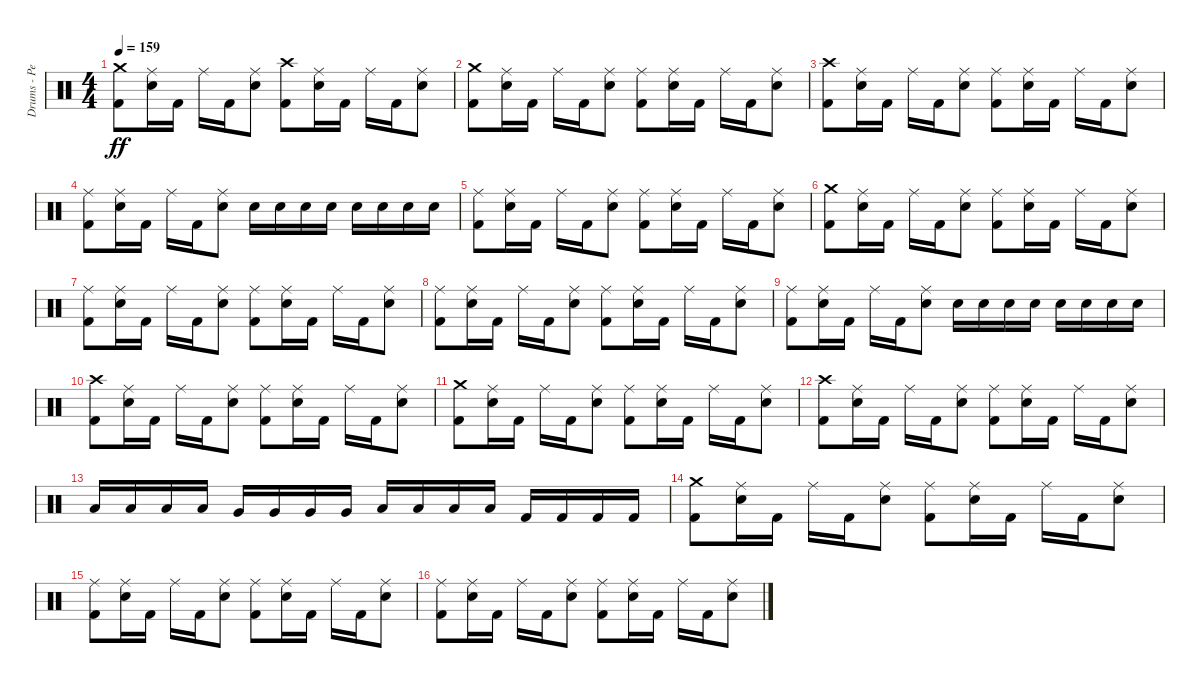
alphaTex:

\track ("Drums - Pete Finestone" "Drums - Pe") {instrument percussion}
\staff {score}
\articulation defaults
\ts (4 4)
\tempo 159
\clef neutral
\ks c
("Crash medium (hit)" "Kick (hit) 2").8{dy ff} ("Electric Snare (hit)" "Ride (middle)").16 "Kick (hit) 2".16 "Ride (middle)".16 "Kick (hit) 2".16 ("Electric Snare (hit)" "Ride (middle)").8 ("Kick (hit) 2" "Crash high (hit)").8 ("Electric Snare (hit)" "Ride (middle)").16 "Kick (hit) 2".16 "Ride (middle)".16 "Kick (hit) 2".16 ("Electric Snare (hit)" "Ride (middle)").8 |
("Kick (hit) 2" "Crash medium (hit)").8 ("Electric Snare (hit)" "Ride (middle)").16 "Kick (hit) 2".16 "Ride (middle)".16 "Kick (hit) 2".16 ("Electric Snare (hit)" "Ride (middle)").8 ("Kick (hit) 2" "Ride (middle)").8 ("Electric Snare (hit)" "Ride (middle)").16 "Kick (hit) 2".16 "Ride (middle)".16 "Kick (hit) 2".16 ("Electric Snare (hit)" "Ride (middle)").8 |
("Kick (hit) 2" "Crash high (hit)").8 ("Electric Snare (hit)" "Ride (middle)").16 "Kick (hit) 2".16 "Ride (middle)".16 "Kick (hit) 2".16 ("Electric Snare (hit)" "Ride (middle)").8 ("Kick (hit) 2" "Ride (middle)").8 ("Electric Snare (hit)" "Ride (middle)").16 "Kick (hit) 2".16 "Ride (middle)".16 "Kick (hit) 2".16 ("Electric Snare (hit)" "Ride (middle)").8 |
("Kick (hit) 2" "Ride (middle)").8 ("Electric Snare (hit)" "Ride (middle)").16 "Kick (hit) 2".16 "Ride (middle)".16 "Kick (hit) 2".16 ("Electric Snare (hit)" "Ride (middle)").8 "Electric Snare (hit)".16 "Electric Snare (hit)".16 "Electric Snare (hit)".16 "Electric Snare (hit)".16 "Electric Snare (hit)".16 "Electric Snare (hit)".16 "Electric Snare (hit)".16 "Electric Snare (hit)".16 |
("Kick (hit) 2" "Ride (middle)").8 ("Electric Snare (hit)" "Ride (middle)").16 "Kick (hit) 2".16 "Ride (middle)".16 "Kick (hit) 2".16 ("Electric Snare (hit)" "Ride (middle)").8 ("Kick (hit) 2" "Ride (middle)").8 ("Electric Snare (hit)" "Ride (middle)").16 "Kick (hit) 2".16 "Ride (middle)".16 "Kick (hit) 2".16 ("Electric Snare (hit)" "Ride (middle)").8 |
("Kick (hit) 2" "Crash medium (hit)").8 ("Electric Snare (hit)" "Ride (middle)").16 "Kick (hit) 2".16 "Ride (middle)".16 "Kick (hit) 2".16 ("Electric Snare (hit)" "Ride (middle)").8 ("Kick (hit) 2" "Ride (middle)").8 ("Electric Snare (hit)" "Ride (middle)").16 "Kick (hit) 2".16 "Ride (middle)".16 "Kick (hit) 2".16 ("Electric Snare (hit)" "Ride (middle)").8 |
("Kick (hit) 2" "Ride (middle)").8 ("Electric Snare (hit)" "Ride (middle)").16 "Kick (hit) 2".16 "Ride (middle)".16 "Kick (hit) 2".16 ("Electric Snare (hit)" "Ride (middle)").8 ("Kick (hit) 2" "Ride (middle)").8 ("Electric Snare (hit)" "Ride (middle)").16 "Kick (hit) 2".16 "Ride (middle)".16 "Kick (hit) 2".16 ("Electric Snare (hit)" "Ride (middle)").8 |
("Kick (hit) 2" "Ride (middle)").8 ("Electric Snare (hit)" "Ride (middle)").16 "Kick (hit) 2".16 "Ride (middle)".16 "Kick (hit) 2".16 ("Electric Snare (hit)" "Ride (middle)").8 ("Kick (hit) 2" "Ride (middle)").8 ("Electric Snare (hit)" "Ride (middle)").16 "Kick (hit) 2".16 "Ride (middle)".16 "Kick (hit) 2".16 ("Electric Snare (hit)" "Ride (middle)").8 |
("Kick (hit) 2" "Ride (middle)").8 ("Electric Snare (hit)" "Ride (middle)").16 "Kick (hit) 2".16 "Ride (middle)".16 "Kick (hit) 2".16 ("Electric Snare (hit)" "Ride (middle)").8 "Electric Snare (hit)".16 "Electric Snare (hit)".16 "Electric Snare (hit)".16 "Electric Snare (hit)".16 "Electric Snare (hit)".16 "Electric Snare (hit)".16 "Electric Snare (hit)".16 "Electric Snare (hit)".16 |
("Kick (hit) 2" "Crash high (hit)").8 ("Electric Snare (hit)" "Ride (middle)").16 "Kick (hit) 2".16 "Ride (middle)".16 "Kick (hit) 2".16 ("Electric Snare (hit)" "Ride (middle)").8 ("Kick (hit) 2" "Ride (middle)").8 ("Electric Snare (hit)" "Ride (middle)").16 "Kick (hit) 2".16 "Ride (middle)".16 "Kick (hit) 2".16 ("Electric Snare (hit)" "Ride (middle)").8 |
("Kick (hit) 2" "Crash medium (hit)").8 ("Electric Snare (hit)" "Ride (middle)").16 "Kick (hit) 2".16 "Ride (middle)".16 "Kick (hit) 2".16 ("Electric Snare (hit)" "Ride (middle)").8 ("Kick (hit) 2" "Ride (middle)").8 ("Electric Snare (hit)" "Ride (middle)").16 "Kick (hit) 2".16 "Ride (middle)".16 "Kick (hit) 2".16 ("Electric Snare (hit)" "Ride (middle)").8 |
("Kick (hit) 2" "Crash high (hit)").8 ("Electric Snare (hit)" "Ride (middle)").16 "Kick (hit) 2".16 "Ride (middle)".16 "Kick (hit) 2".16 ("Electric Snare (hit)" "Ride (middle)").8 ("Kick (hit) 2" "Ride (middle)").8 ("Electric Snare (hit)" "Ride (middle)").16 "Kick (hit) 2".16 "Ride (middle)".16 "Kick (hit) 2".16 ("Electric Snare (hit)" "Ride (middle)").8 |
"Low Tom (hit)".16 "Low Tom (hit)".16 "Low Tom (hit)".16 "Low Tom (hit)".16 "Very Low Tom (hit)".16 "Very Low Tom (hit)".16 "Very Low Tom (hit)".16 "Very Low Tom (hit)".16 "Low Floor Tom (hit)".16 "Low Floor Tom (hit)".16 "Low Floor Tom (hit)".16 "Low Floor Tom (hit)".16 "Kick (hit) 2".16 "Kick (hit) 2".16 "Kick (hit) 2".16 "Kick (hit) 2".16 |
("Kick (hit) 2" "Crash medium (hit)").8 ("Electric Snare (hit)" "Ride (middle)").16 "Kick (hit) 2".16 "Ride (middle)".16 "Kick (hit) 2".16 ("Electric Snare (hit)" "Ride (middle)").8 ("Kick (hit) 2" "Ride (middle)").8 ("Electric Snare (hit)" "Ride (middle)").16 "Kick (hit) 2".16 "Ride (middle)".16 "Kick (hit) 2".16 ("Electric Snare (hit)" "Ride (middle)").8 |
("Kick (hit) 2" "Ride (middle)").8 ("Electric Snare (hit)" "Ride (middle)").16 "Kick (hit) 2".16 "Ride (middle)".16 "Kick (hit) 2".16 ("Electric Snare (hit)" "Ride (middle)").8 ("Kick (hit) 2" "Ride (middle)").8 ("Electric Snare (hit)" "Ride (middle)").16 "Kick (hit) 2".16 "Ride (middle)".16 "Kick (hit) 2".16 ("Electric Snare (hit)" "Ride (middle)").8 |
("Kick (hit) 2" "Ride (middle)").8 ("Electric Snare (hit)" "Ride (middle)").16 "Kick (hit) 2".16 "Ride (middle)".16 "Kick (hit) 2".16 ("Electric Snare (hit)" "Ride (middle)").8 ("Kick (hit) 2" "Ride (middle)").8 ("Electric Snare (hit)" "Ride (middle)").16 "Kick (hit) 2".16 "Ride (middle)".16 "Kick (hit) 2".16 ("Electric Snare (hit)" "Ride (middle)").8
